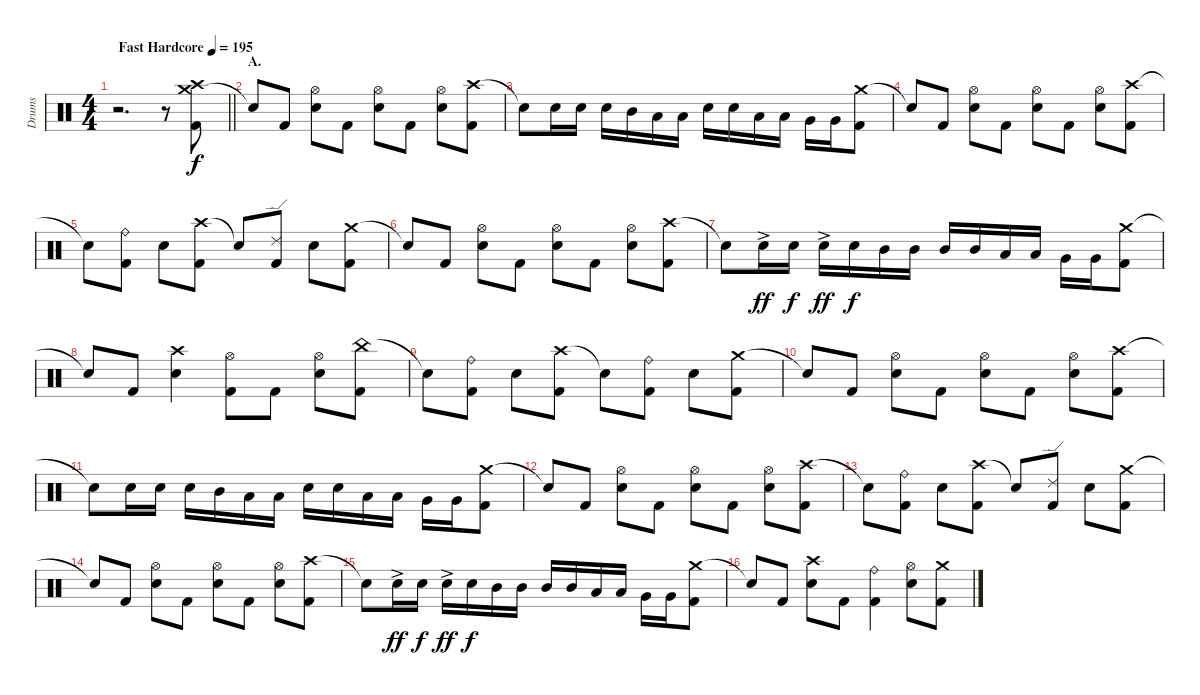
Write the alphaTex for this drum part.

\track ("Drums" "Drums") {instrument percussion}
\staff {score}
\articulation defaults
\ts (4 4)
\section ("" "")
\tempo (195 "Fast Hardcore")
\clef neutral
\barLineRight lightlight
\ks c
r.2{d dy f} r.8 ("Crash medium (hit)" "Crash high (hit)" "Kick (hit) 2").8 |
\section ("" "A.")
"Snare (hit)"{t}.8 "Kick (hit) 2".8 ("Hi-Hat (open)" "Electric Snare (hit)").8 "Kick (hit) 2".8 ("Hi-Hat (open)" "Electric Snare (hit)").8 "Kick (hit) 2".8 ("Hi-Hat (open)" "Electric Snare (hit)").8 ("Crash high (hit)" "Kick (hit) 2").8 |
"Snare (hit)"{t}.8 "Electric Snare (hit)".16 "Electric Snare (hit)".16 "Electric Snare (hit)".16 "Mid Tom (hit)".16 "Low Tom (hit)".16 "Low Tom (hit)".16 "Electric Snare (hit)".16 "Electric Snare (hit)".16 "Low Tom (hit)".16 "Low Tom (hit)".16 "Very Low Tom (hit)".16 "Very Low Tom (hit)".16 ("Crash medium (hit)" "Kick (hit) 2").8 |
"Snare (hit)"{t}.8 "Kick (hit) 2".8 ("Hi-Hat (open)" "Electric Snare (hit)").8 "Kick (hit) 2".8 ("Hi-Hat (open)" "Electric Snare (hit)").8 "Kick (hit) 2".8 ("Hi-Hat (open)" "Electric Snare (hit)").8 ("Crash high (hit)" "Kick (hit) 2").8 |
"Snare (hit)"{t}.8 ("Ride (bell)" "Kick (hit) 2").8 "Electric Snare (hit)".8 ("Crash high (hit)" "Kick (hit) 2").8 "Snare (hit)"{t}.8 ("Ride (edge) 2" "Kick (hit) 2").8 "Electric Snare (hit)".8 ("Crash medium (hit)" "Kick (hit) 2").8 |
"Snare (hit)"{t}.8 "Kick (hit) 2".8 ("Hi-Hat (open)" "Electric Snare (hit)").8 "Kick (hit) 2".8 ("Hi-Hat (open)" "Electric Snare (hit)").8 "Kick (hit) 2".8 ("Hi-Hat (open)" "Electric Snare (hit)").8 ("Crash high (hit)" "Kick (hit) 2").8 |
"Snare (hit)"{t}.8 "Electric Snare (hit)"{ac}.16{dy ff} "Electric Snare (hit)".16{dy f} "Electric Snare (hit)"{ac}.16{dy ff} "Electric Snare (hit)".16{dy f} "Mid Tom (hit)".16 "Mid Tom (hit)".16 "Mid Tom (hit)".16 "Mid Tom (hit)".16 "Low Tom (hit)".16 "Low Tom (hit)".16 "Very Low Tom (hit)".16 "Very Low Tom (hit)".16 ("Crash medium (hit)" "Kick (hit) 2").8 |
"Snare (hit)"{t}.8 "Kick (hit) 2".8 ("Crash high (hit)" "Electric Snare (hit)").4 ("Hi-Hat (open)" "Kick (hit) 2").8 "Kick (hit) 2".8 ("Hi-Hat (open)" "Electric Snare (hit)").8 ("China (hit)" "Kick (hit) 2").8 |
"Snare (hit)"{t}.8 ("Ride (bell)" "Kick (hit) 2").8 "Electric Snare (hit)".8 ("Crash high (hit)" "Kick (hit) 2").8 "Snare (hit)"{t}.8 ("Ride (bell)" "Kick (hit) 2").8 "Electric Snare (hit)".8 ("Crash medium (hit)" "Kick (hit) 2").8 |
"Snare (hit)"{t}.8 "Kick (hit) 2".8 ("Hi-Hat (open)" "Electric Snare (hit)").8 "Kick (hit) 2".8 ("Hi-Hat (open)" "Electric Snare (hit)").8 "Kick (hit) 2".8 ("Hi-Hat (open)" "Electric Snare (hit)").8 ("Crash high (hit)" "Kick (hit) 2").8 |
"Snare (hit)"{t}.8 "Electric Snare (hit)".16 "Electric Snare (hit)".16 "Electric Snare (hit)".16 "Mid Tom (hit)".16 "Low Tom (hit)".16 "Low Tom (hit)".16 "Electric Snare (hit)".16 "Electric Snare (hit)".16 "Low Tom (hit)".16 "Low Tom (hit)".16 "Very Low Tom (hit)".16 "Very Low Tom (hit)".16 ("Crash medium (hit)" "Kick (hit) 2").8 |
"Snare (hit)"{t}.8 "Kick (hit) 2".8 ("Hi-Hat (open)" "Electric Snare (hit)").8 "Kick (hit) 2".8 ("Hi-Hat (open)" "Electric Snare (hit)").8 "Kick (hit) 2".8 ("Hi-Hat (open)" "Electric Snare (hit)").8 ("Crash high (hit)" "Kick (hit) 2").8 |
"Snare (hit)"{t}.8 ("Ride (bell)" "Kick (hit) 2").8 "Electric Snare (hit)".8 ("Crash high (hit)" "Kick (hit) 2").8 "Snare (hit)"{t}.8 ("Ride (edge) 2" "Kick (hit) 2").8 "Electric Snare (hit)".8 ("Crash medium (hit)" "Kick (hit) 2").8 |
"Snare (hit)"{t}.8 "Kick (hit) 2".8 ("Hi-Hat (open)" "Electric Snare (hit)").8 "Kick (hit) 2".8 ("Hi-Hat (open)" "Electric Snare (hit)").8 "Kick (hit) 2".8 ("Hi-Hat (open)" "Electric Snare (hit)").8 ("Crash high (hit)" "Kick (hit) 2").8 |
"Snare (hit)"{t}.8 "Electric Snare (hit)"{ac}.16{dy ff} "Electric Snare (hit)".16{dy f} "Electric Snare (hit)"{ac}.16{dy ff} "Electric Snare (hit)".16{dy f} "Mid Tom (hit)".16 "Mid Tom (hit)".16 "Mid Tom (hit)".16 "Mid Tom (hit)".16 "Low Tom (hit)".16 "Low Tom (hit)".16 "Very Low Tom (hit)".16 "Very Low Tom (hit)".16 ("Crash medium (hit)" "Kick (hit) 2").8 |
"Snare (hit)"{t}.8 "Kick (hit) 2".8 ("Crash high (hit)" "Electric Snare (hit)").8 "Kick (hit) 2".8 ("Ride (bell)" "Kick (hit) 2").4 ("Hi-Hat (open)" "Electric Snare (hit)").8 ("Crash medium (hit)" "Kick (hit) 2").8
